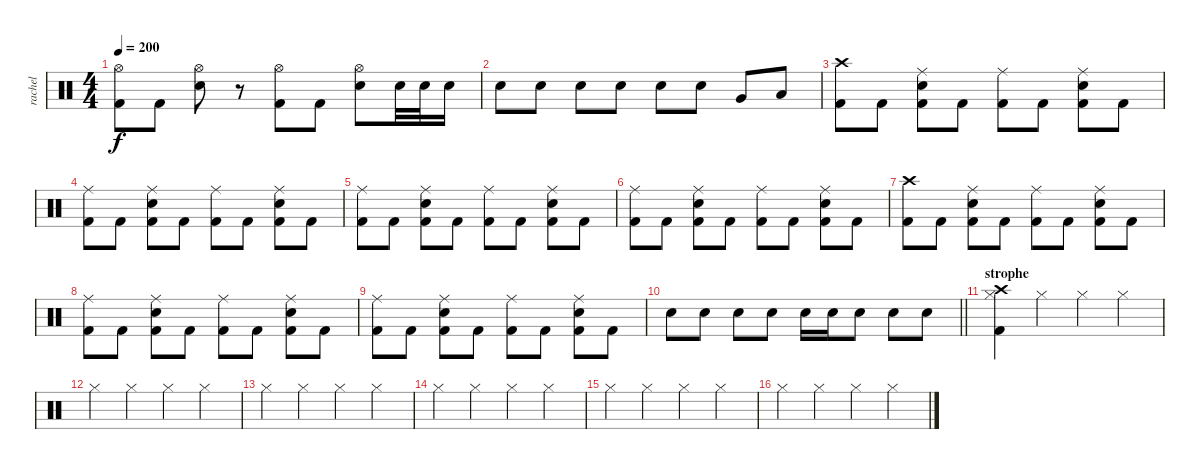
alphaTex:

\track ("rachel" "rachel") {instrument percussion}
\staff {score}
\articulation defaults
\ts (4 4)
\tempo 200
\clef neutral
\ks c
("Hi-Hat (open)" "Kick (hit) 2").8{dy f} "Kick (hit) 2".8 ("Hi-Hat (open)" "Electric Snare (hit)").8 r.8 ("Hi-Hat (open)" "Kick (hit) 2").8 "Kick (hit) 2".8 ("Hi-Hat (open)" "Electric Snare (hit)").8 "Electric Snare (hit)".32 "Electric Snare (hit)".32 "Electric Snare (hit)".16 |
"Electric Snare (hit)".8 "Electric Snare (hit)".8 "Electric Snare (hit)".8 "Electric Snare (hit)".8 "Electric Snare (hit)".8 "Electric Snare (hit)".8 "Very Low Tom (hit)".8 "Low Floor Tom (hit)".8 |
("Crash high (hit)" "Kick (hit) 2").8 "Kick (hit) 2".8 ("Ride (middle)" "Electric Snare (hit)" "Kick (hit) 2").8 "Kick (hit) 2".8 ("Ride (middle)" "Kick (hit) 2").8 "Kick (hit) 2".8 ("Ride (middle)" "Electric Snare (hit)" "Kick (hit) 2").8 "Kick (hit) 2".8 |
("Ride (middle)" "Kick (hit) 2").8 "Kick (hit) 2".8 ("Ride (middle)" "Electric Snare (hit)" "Kick (hit) 2").8 "Kick (hit) 2".8 ("Ride (middle)" "Kick (hit) 2").8 "Kick (hit) 2".8 ("Ride (middle)" "Electric Snare (hit)" "Kick (hit) 2").8 "Kick (hit) 2".8 |
("Ride (middle)" "Kick (hit) 2").8 "Kick (hit) 2".8 ("Ride (middle)" "Electric Snare (hit)" "Kick (hit) 2").8 "Kick (hit) 2".8 ("Ride (middle)" "Kick (hit) 2").8 "Kick (hit) 2".8 ("Ride (middle)" "Electric Snare (hit)" "Kick (hit) 2").8 "Kick (hit) 2".8 |
("Ride (middle)" "Kick (hit) 2").8 "Kick (hit) 2".8 ("Ride (middle)" "Electric Snare (hit)" "Kick (hit) 2").8 "Kick (hit) 2".8 ("Ride (middle)" "Kick (hit) 2").8 "Kick (hit) 2".8 ("Ride (middle)" "Electric Snare (hit)" "Kick (hit) 2").8 "Kick (hit) 2".8 |
("Crash high (hit)" "Kick (hit) 2").8 "Kick (hit) 2".8 ("Ride (middle)" "Electric Snare (hit)" "Kick (hit) 2").8 "Kick (hit) 2".8 ("Ride (middle)" "Kick (hit) 2").8 "Kick (hit) 2".8 ("Ride (middle)" "Electric Snare (hit)" "Kick (hit) 2").8 "Kick (hit) 2".8 |
("Ride (middle)" "Kick (hit) 2").8 "Kick (hit) 2".8 ("Ride (middle)" "Electric Snare (hit)" "Kick (hit) 2").8 "Kick (hit) 2".8 ("Ride (middle)" "Kick (hit) 2").8 "Kick (hit) 2".8 ("Ride (middle)" "Electric Snare (hit)" "Kick (hit) 2").8 "Kick (hit) 2".8 |
("Ride (middle)" "Kick (hit) 2").8 "Kick (hit) 2".8 ("Ride (middle)" "Electric Snare (hit)" "Kick (hit) 2").8 "Kick (hit) 2".8 ("Ride (middle)" "Kick (hit) 2").8 "Kick (hit) 2".8 ("Ride (middle)" "Electric Snare (hit)" "Kick (hit) 2").8 "Kick (hit) 2".8 |
\barLineRight lightlight "Electric Snare (hit)".8 "Electric Snare (hit)".8 "Electric Snare (hit)".8 "Electric Snare (hit)".8 "Electric Snare (hit)".16 "Electric Snare (hit)".16 "Electric Snare (hit)".8 "Electric Snare (hit)".8 "Electric Snare (hit)".8
|
\section ("" "strophe")
("Crash high (hit)" "Hi-Hat (closed)" "Kick (hit) 2").4 "Hi-Hat (closed)".4 "Hi-Hat (closed)".4 "Hi-Hat (closed)".4 |
"Hi-Hat (closed)".4 "Hi-Hat (closed)".4 "Hi-Hat (closed)".4 "Hi-Hat (closed)".4 |
"Hi-Hat (closed)".4 "Hi-Hat (closed)".4 "Hi-Hat (closed)".4 "Hi-Hat (closed)".4 |
"Hi-Hat (closed)".4 "Hi-Hat (closed)".4 "Hi-Hat (closed)".4 "Hi-Hat (closed)".4 |
"Hi-Hat (closed)".4 "Hi-Hat (closed)".4 "Hi-Hat (closed)".4 "Hi-Hat (closed)".4 |
"Hi-Hat (closed)".4 "Hi-Hat (closed)".4 "Hi-Hat (closed)".4 "Hi-Hat (closed)".4
